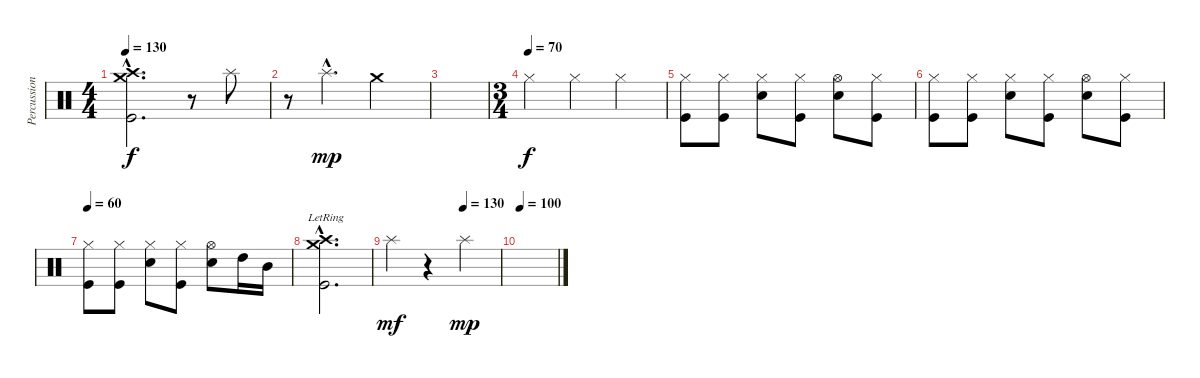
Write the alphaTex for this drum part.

\track ("Percussion" "Percussion") {instrument percussion}
\staff {score}
\articulation defaults
\ts (4 4)
\tempo 130
\clef neutral
\ks c
("Crash high (hit)"{hac} "Crash medium (hit)"{hac} "Kick (hit)"{hac}).2{d dy f} r.8 "Splash (hit)".8 |
r.8 "Splash (hit)"{hac}.4{d dy mp} "Crash medium (hit)".2 |
|
\ts (3 4)
\tempo (70)
"Hi-Hat (closed)".4{dy f} "Hi-Hat (closed)".4 "Hi-Hat (closed)".4 |
("Hi-Hat (closed)" "Kick (hit)").8 ("Hi-Hat (closed)" "Kick (hit)").8 ("Hi-Hat (closed)" "Electric Snare (hit)").8 ("Hi-Hat (closed)" "Kick (hit)").8 ("Hi-Hat (open)" "Electric Snare (hit)").8 ("Hi-Hat (closed)" "Kick (hit)").8 |
("Hi-Hat (closed)" "Kick (hit)").8 ("Hi-Hat (closed)" "Kick (hit)").8 ("Hi-Hat (closed)" "Electric Snare (hit)").8 ("Hi-Hat (closed)" "Kick (hit)").8 ("Hi-Hat (open)" "Electric Snare (hit)").8 ("Hi-Hat (closed)" "Kick (hit)").8 |
\tempo 60
("Hi-Hat (closed)" "Kick (hit)").8 ("Hi-Hat (closed)" "Kick (hit)").8 ("Hi-Hat (closed)" "Electric Snare (hit)").8 ("Hi-Hat (closed)" "Kick (hit)").8 ("Hi-Hat (open)" "Electric Snare (hit)").8 "High Tom (hit)".16 "Mid Tom (hit)".16 |
("Crash high (hit)"{hac lr} "Crash medium (hit)"{hac} "Kick (hit)"{hac}).2{d} |
\tempo (130 0.6666666666666666)
"Splash (hit)".4{dy mf} r.4 "Splash (hit)".4{dy mp} |
\tempo 100
